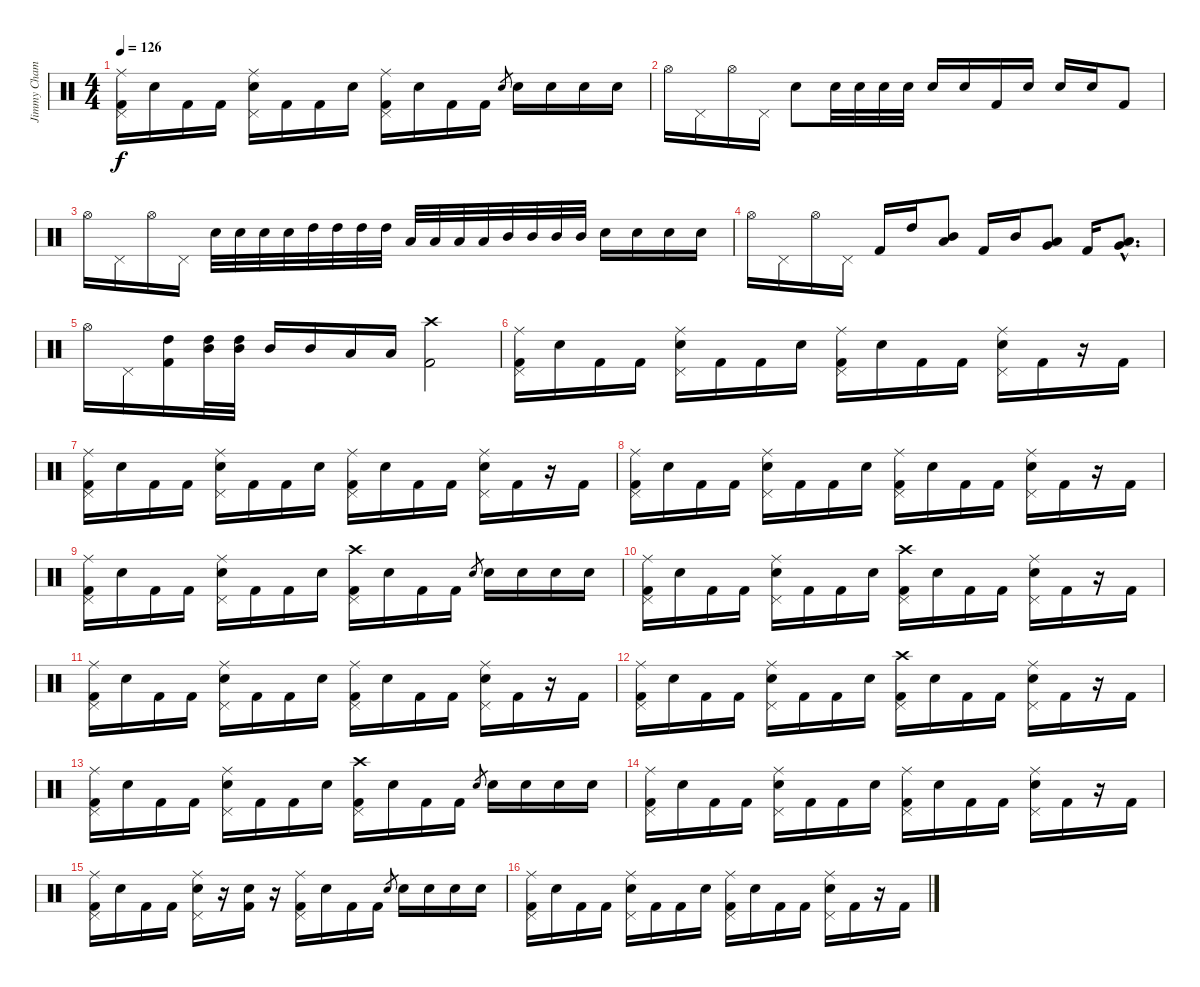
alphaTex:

\track ("Jimmy Chamberlain" "Jimmy Cham") {instrument percussion}
\staff {score}
\articulation defaults
\ts (4 4)
\tempo 126
\clef neutral
\ks c
("Ride (middle)" "Pedal Hi-Hat (hit)" "Kick (hit) 2").16{dy f} "Snare (hit) 2".16 "Kick (hit) 2".16 "Kick (hit) 2".16 ("Ride (middle)" "Pedal Hi-Hat (hit)" "Snare (hit) 2").16 "Kick (hit) 2".16 "Kick (hit) 2".16 "Snare (hit) 2".16 ("Ride (middle)" "Pedal Hi-Hat (hit)" "Kick (hit) 2").16 "Snare (hit) 2".16 "Kick (hit) 2".16 "Kick (hit) 2".16 "Snare (hit) 2".8{gr} "Snare (hit) 2".16 "Snare (hit) 2".16 "Snare (hit) 2".16 "Snare (hit) 2".16 |
"Hi-Hat (open)".16 "Pedal Hi-Hat (hit)".16 "Hi-Hat (open)".16 "Pedal Hi-Hat (hit)".16 "Snare (hit) 2".8 "Snare (hit) 2".32 "Snare (hit) 2".32 "Snare (hit) 2".32 "Snare (hit) 2".32 "Snare (hit) 2".16 "Snare (hit) 2".16 "Kick (hit) 2".16 "Snare (hit) 2".16 "Snare (hit) 2".16 "Snare (hit) 2".16 "Kick (hit) 2".8 |
"Hi-Hat (open)".16 "Pedal Hi-Hat (hit)".16 "Hi-Hat (open)".16 "Pedal Hi-Hat (hit)".16 "Snare (hit) 2".32 "Snare (hit) 2".32 "Snare (hit) 2".32 "Snare (hit) 2".32 "High Tom (hit)".32 "High Tom (hit)".32 "High Tom (hit)".32 "High Tom (hit)".32 "Low Tom (hit)".32 "Low Tom (hit)".32 "Low Tom (hit)".32 "Low Tom (hit)".32 "Mid Tom (hit)".32 "Mid Tom (hit)".32 "Mid Tom (hit)".32 "Mid Tom (hit)".32 "Snare (hit) 2".16 "Snare (hit) 2".16 "Snare (hit) 2".16 "Snare (hit) 2".16 |
"Hi-Hat (open)".16 "Pedal Hi-Hat (hit)".16 "Hi-Hat (open)".16 "Pedal Hi-Hat (hit)".16 "Kick (hit) 2".16 "High Tom (hit)".16 ("Mid Tom (hit)" "Low Tom (hit)").8 "Kick (hit) 2".16 "Mid Tom (hit)".16 ("Low Tom (hit)" "Very Low Tom (hit)").8 "Kick (hit) 2".16 ("Low Tom (hit)"{hac} "Very Low Tom (hit)"{hac}).8{d} |
"Hi-Hat (open)".16 "Pedal Hi-Hat (hit)".16 ("High Tom (hit)" "Kick (hit) 2").16 ("High Tom (hit)" "Mid Tom (hit)").32 ("High Tom (hit)" "Mid Tom (hit)").32 "Mid Tom (hit)".16 "Mid Tom (hit)".16 "Low Tom (hit)".16 "Low Tom (hit)".16 ("Crash high (hit)" "Kick (hit) 2").2 |
("Ride (middle)" "Pedal Hi-Hat (hit)" "Kick (hit) 2").16 "Snare (hit) 2".16 "Kick (hit) 2".16 "Kick (hit) 2".16 ("Ride (middle)" "Pedal Hi-Hat (hit)" "Snare (hit) 2").16 "Kick (hit) 2".16 "Kick (hit) 2".16 "Snare (hit) 2".16 ("Ride (middle)" "Pedal Hi-Hat (hit)" "Kick (hit) 2").16 "Snare (hit) 2".16 "Kick (hit) 2".16 "Kick (hit) 2".16 ("Ride (middle)" "Pedal Hi-Hat (hit)" "Snare (hit) 2").16 "Kick (hit) 2".16 r.16 "Kick (hit) 2".16 |
("Ride (middle)" "Pedal Hi-Hat (hit)" "Kick (hit) 2").16 "Snare (hit) 2".16 "Kick (hit) 2".16 "Kick (hit) 2".16 ("Ride (middle)" "Pedal Hi-Hat (hit)" "Snare (hit) 2").16 "Kick (hit) 2".16 "Kick (hit) 2".16 "Snare (hit) 2".16 ("Ride (middle)" "Pedal Hi-Hat (hit)" "Kick (hit) 2").16 "Snare (hit) 2".16 "Kick (hit) 2".16 "Kick (hit) 2".16 ("Ride (middle)" "Pedal Hi-Hat (hit)" "Snare (hit) 2").16 "Kick (hit) 2".16 r.16 "Kick (hit) 2".16 |
("Ride (middle)" "Pedal Hi-Hat (hit)" "Kick (hit) 2").16 "Snare (hit) 2".16 "Kick (hit) 2".16 "Kick (hit) 2".16 ("Ride (middle)" "Pedal Hi-Hat (hit)" "Snare (hit) 2").16 "Kick (hit) 2".16 "Kick (hit) 2".16 "Snare (hit) 2".16 ("Ride (middle)" "Pedal Hi-Hat (hit)" "Kick (hit) 2").16 "Snare (hit) 2".16 "Kick (hit) 2".16 "Kick (hit) 2".16 ("Ride (middle)" "Pedal Hi-Hat (hit)" "Snare (hit) 2").16 "Kick (hit) 2".16 r.16 "Kick (hit) 2".16 |
("Ride (middle)" "Pedal Hi-Hat (hit)" "Kick (hit) 2").16 "Snare (hit) 2".16 "Kick (hit) 2".16 "Kick (hit) 2".16 ("Ride (middle)" "Pedal Hi-Hat (hit)" "Snare (hit) 2").16 "Kick (hit) 2".16 "Kick (hit) 2".16 "Snare (hit) 2".16 ("Crash high (hit)" "Pedal Hi-Hat (hit)" "Kick (hit) 2").16 "Snare (hit) 2".16 "Kick (hit) 2".16 "Kick (hit) 2".16 "Snare (hit) 2".8{gr} "Snare (hit) 2".16 "Snare (hit) 2".16 "Snare (hit) 2".16 "Snare (hit) 2".16 |
("Ride (middle)" "Pedal Hi-Hat (hit)" "Kick (hit) 2").16 "Snare (hit) 2".16 "Kick (hit) 2".16 "Kick (hit) 2".16 ("Ride (middle)" "Pedal Hi-Hat (hit)" "Snare (hit) 2").16 "Kick (hit) 2".16 "Kick (hit) 2".16 "Snare (hit) 2".16 ("Crash high (hit)" "Pedal Hi-Hat (hit)" "Kick (hit) 2").16 "Snare (hit) 2".16 "Kick (hit) 2".16 "Kick (hit) 2".16 ("Ride (middle)" "Pedal Hi-Hat (hit)" "Snare (hit) 2").16 "Kick (hit) 2".16 r.16 "Kick (hit) 2".16 |
("Ride (middle)" "Pedal Hi-Hat (hit)" "Kick (hit) 2").16 "Snare (hit) 2".16 "Kick (hit) 2".16 "Kick (hit) 2".16 ("Ride (middle)" "Pedal Hi-Hat (hit)" "Snare (hit) 2").16 "Kick (hit) 2".16 "Kick (hit) 2".16 "Snare (hit) 2".16 ("Ride (middle)" "Pedal Hi-Hat (hit)" "Kick (hit) 2").16 "Snare (hit) 2".16 "Kick (hit) 2".16 "Kick (hit) 2".16 ("Ride (middle)" "Pedal Hi-Hat (hit)" "Snare (hit) 2").16 "Kick (hit) 2".16 r.16 "Kick (hit) 2".16 |
("Ride (middle)" "Pedal Hi-Hat (hit)" "Kick (hit) 2").16 "Snare (hit) 2".16 "Kick (hit) 2".16 "Kick (hit) 2".16 ("Ride (middle)" "Pedal Hi-Hat (hit)" "Snare (hit) 2").16 "Kick (hit) 2".16 "Kick (hit) 2".16 "Snare (hit) 2".16 ("Crash high (hit)" "Pedal Hi-Hat (hit)" "Kick (hit) 2").16 "Snare (hit) 2".16 "Kick (hit) 2".16 "Kick (hit) 2".16 ("Ride (middle)" "Pedal Hi-Hat (hit)" "Snare (hit) 2").16 "Kick (hit) 2".16 r.16 "Kick (hit) 2".16 |
("Ride (middle)" "Pedal Hi-Hat (hit)" "Kick (hit) 2").16 "Snare (hit) 2".16 "Kick (hit) 2".16 "Kick (hit) 2".16 ("Ride (middle)" "Pedal Hi-Hat (hit)" "Snare (hit) 2").16 "Kick (hit) 2".16 "Kick (hit) 2".16 "Snare (hit) 2".16 ("Crash high (hit)" "Pedal Hi-Hat (hit)" "Kick (hit) 2").16 "Snare (hit) 2".16 "Kick (hit) 2".16 "Kick (hit) 2".16 "Snare (hit) 2".8{gr} "Snare (hit) 2".16 "Snare (hit) 2".16 "Snare (hit) 2".16 "Snare (hit) 2".16 |
("Ride (middle)" "Pedal Hi-Hat (hit)" "Kick (hit) 2").16 "Snare (hit) 2".16 "Kick (hit) 2".16 "Kick (hit) 2".16 ("Ride (middle)" "Pedal Hi-Hat (hit)" "Snare (hit) 2").16 "Kick (hit) 2".16 "Kick (hit) 2".16 "Snare (hit) 2".16 ("Ride (middle)" "Pedal Hi-Hat (hit)" "Kick (hit) 2").16 "Snare (hit) 2".16 "Kick (hit) 2".16 "Kick (hit) 2".16 ("Ride (middle)" "Pedal Hi-Hat (hit)" "Snare (hit) 2").16 "Kick (hit) 2".16 r.16 "Kick (hit) 2".16 |
("Ride (middle)" "Pedal Hi-Hat (hit)" "Kick (hit) 2").16 "Snare (hit) 2".16 "Kick (hit) 2".16 "Kick (hit) 2".16 ("Ride (middle)" "Pedal Hi-Hat (hit)" "Snare (hit) 2").16 r.16 ("Snare (hit) 2" "Kick (hit) 2").16 r.16 ("Ride (middle)" "Pedal Hi-Hat (hit)" "Kick (hit) 2").16 "Snare (hit) 2".16 "Kick (hit) 2".16 "Kick (hit) 2".16 "Snare (hit) 2".8{gr} "Snare (hit) 2".16 "Snare (hit) 2".16 "Snare (hit) 2".16 "Snare (hit) 2".16 |
("Ride (middle)" "Pedal Hi-Hat (hit)" "Kick (hit) 2").16 "Snare (hit) 2".16 "Kick (hit) 2".16 "Kick (hit) 2".16 ("Ride (middle)" "Pedal Hi-Hat (hit)" "Snare (hit) 2").16 "Kick (hit) 2".16 "Kick (hit) 2".16 "Snare (hit) 2".16 ("Ride (middle)" "Pedal Hi-Hat (hit)" "Kick (hit) 2").16 "Snare (hit) 2".16 "Kick (hit) 2".16 "Kick (hit) 2".16 ("Ride (middle)" "Pedal Hi-Hat (hit)" "Snare (hit) 2").16 "Kick (hit) 2".16 r.16 "Kick (hit) 2".16
